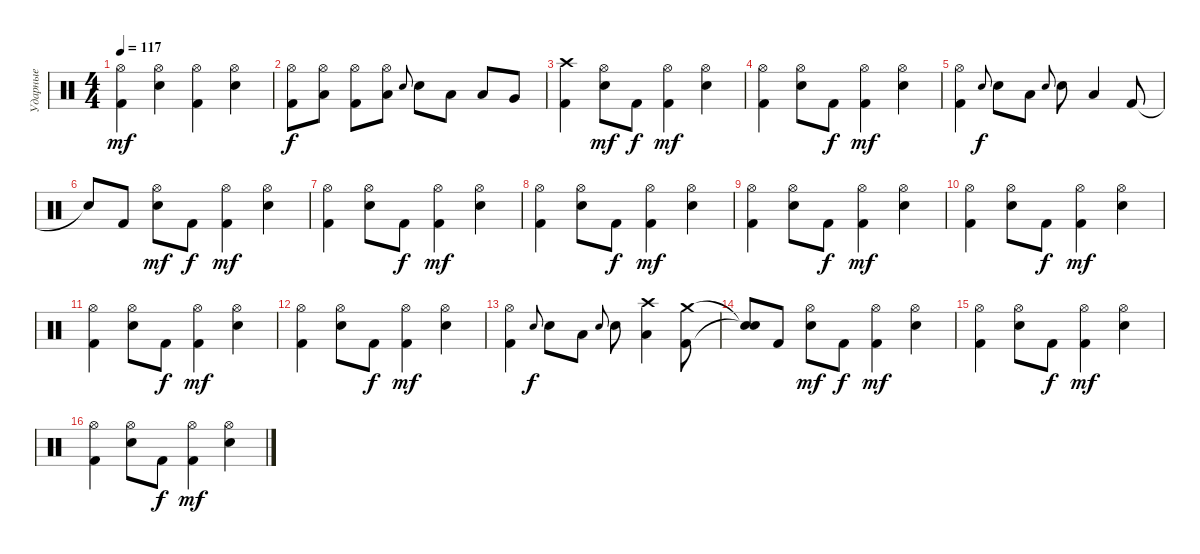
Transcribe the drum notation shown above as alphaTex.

\track ("Ударные" "Ударные") {instrument percussion}
\staff {score}
\articulation defaults
\ts (4 4)
\tempo 117
\clef neutral
\ks c
("Hi-Hat (open)" "Kick (hit) 2").4{dy mf} ("Hi-Hat (open)" "Electric Snare (hit)").4 ("Hi-Hat (open)" "Kick (hit) 2").4 ("Hi-Hat (open)" "Electric Snare (hit)").4 |
("Hi-Hat (open)" "Kick (hit) 2").8{dy f} ("Hi-Hat (open)" "Low Floor Tom (hit)").8 ("Hi-Hat (open)" "Kick (hit) 2").8 ("Hi-Hat (open)" "Low Floor Tom (hit)").8 "Electric Snare (hit)".8{gr onbeat} "Electric Snare (hit)".8 "Low Tom (hit)".8 "Low Tom (hit)".8 "Very Low Tom (hit)".8 |
("Crash high (hit)" "Kick (hit) 2").4 ("Hi-Hat (open)" "Electric Snare (hit)").8{dy mf} "Kick (hit) 2".8{dy f} ("Hi-Hat (open)" "Kick (hit) 2").4{dy mf} ("Hi-Hat (open)" "Electric Snare (hit)").4 |
("Hi-Hat (open)" "Kick (hit) 2").4 ("Hi-Hat (open)" "Electric Snare (hit)").8 "Kick (hit) 2".8{dy f} ("Hi-Hat (open)" "Kick (hit) 2").4{dy mf} ("Hi-Hat (open)" "Electric Snare (hit)").4 |
("Hi-Hat (open)" "Kick (hit) 2").4 "Electric Snare (hit)".8{gr onbeat dy f} "Electric Snare (hit)".8 "Low Tom (hit)".8 "Electric Snare (hit)".8{gr onbeat} "Electric Snare (hit)".8 "Low Tom (hit)".4 "Kick (hit) 2".8 |
"Snare (hit)"{t}.8 "Kick (hit) 2".8 ("Hi-Hat (open)" "Electric Snare (hit)").8{dy mf} "Kick (hit) 2".8{dy f} ("Hi-Hat (open)" "Kick (hit) 2").4{dy mf} ("Hi-Hat (open)" "Electric Snare (hit)").4 |
("Hi-Hat (open)" "Kick (hit) 2").4 ("Hi-Hat (open)" "Electric Snare (hit)").8 "Kick (hit) 2".8{dy f} ("Hi-Hat (open)" "Kick (hit) 2").4{dy mf} ("Hi-Hat (open)" "Electric Snare (hit)").4 |
("Hi-Hat (open)" "Kick (hit) 2").4 ("Hi-Hat (open)" "Electric Snare (hit)").8 "Kick (hit) 2".8{dy f} ("Hi-Hat (open)" "Kick (hit) 2").4{dy mf} ("Hi-Hat (open)" "Electric Snare (hit)").4 |
("Hi-Hat (open)" "Kick (hit) 2").4 ("Hi-Hat (open)" "Electric Snare (hit)").8 "Kick (hit) 2".8{dy f} ("Hi-Hat (open)" "Kick (hit) 2").4{dy mf} ("Hi-Hat (open)" "Electric Snare (hit)").4 |
("Hi-Hat (open)" "Kick (hit) 2").4 ("Hi-Hat (open)" "Electric Snare (hit)").8 "Kick (hit) 2".8{dy f} ("Hi-Hat (open)" "Kick (hit) 2").4{dy mf} ("Hi-Hat (open)" "Electric Snare (hit)").4 |
("Hi-Hat (open)" "Kick (hit) 2").4 ("Hi-Hat (open)" "Electric Snare (hit)").8 "Kick (hit) 2".8{dy f} ("Hi-Hat (open)" "Kick (hit) 2").4{dy mf} ("Hi-Hat (open)" "Electric Snare (hit)").4 |
("Hi-Hat (open)" "Kick (hit) 2").4 ("Hi-Hat (open)" "Electric Snare (hit)").8 "Kick (hit) 2".8{dy f} ("Hi-Hat (open)" "Kick (hit) 2").4{dy mf} ("Hi-Hat (open)" "Electric Snare (hit)").4 |
("Hi-Hat (open)" "Kick (hit) 2").4 "Electric Snare (hit)".8{gr onbeat dy f} "Electric Snare (hit)".8 "Low Tom (hit)".8 "Electric Snare (hit)".8{gr onbeat} "Electric Snare (hit)".8 ("Crash high (hit)" "Low Tom (hit)").4 ("Crash medium (hit)" "Kick (hit) 2").8 |
("Snare (hit)"{t} "Snare (hit)"{t}).8 "Kick (hit) 2".8 ("Hi-Hat (open)" "Electric Snare (hit)").8{dy mf} "Kick (hit) 2".8{dy f} ("Hi-Hat (open)" "Kick (hit) 2").4{dy mf} ("Hi-Hat (open)" "Electric Snare (hit)").4 |
("Hi-Hat (open)" "Kick (hit) 2").4 ("Hi-Hat (open)" "Electric Snare (hit)").8 "Kick (hit) 2".8{dy f} ("Hi-Hat (open)" "Kick (hit) 2").4{dy mf} ("Hi-Hat (open)" "Electric Snare (hit)").4 |
("Hi-Hat (open)" "Kick (hit) 2").4 ("Hi-Hat (open)" "Electric Snare (hit)").8 "Kick (hit) 2".8{dy f} ("Hi-Hat (open)" "Kick (hit) 2").4{dy mf} ("Hi-Hat (open)" "Electric Snare (hit)").4
